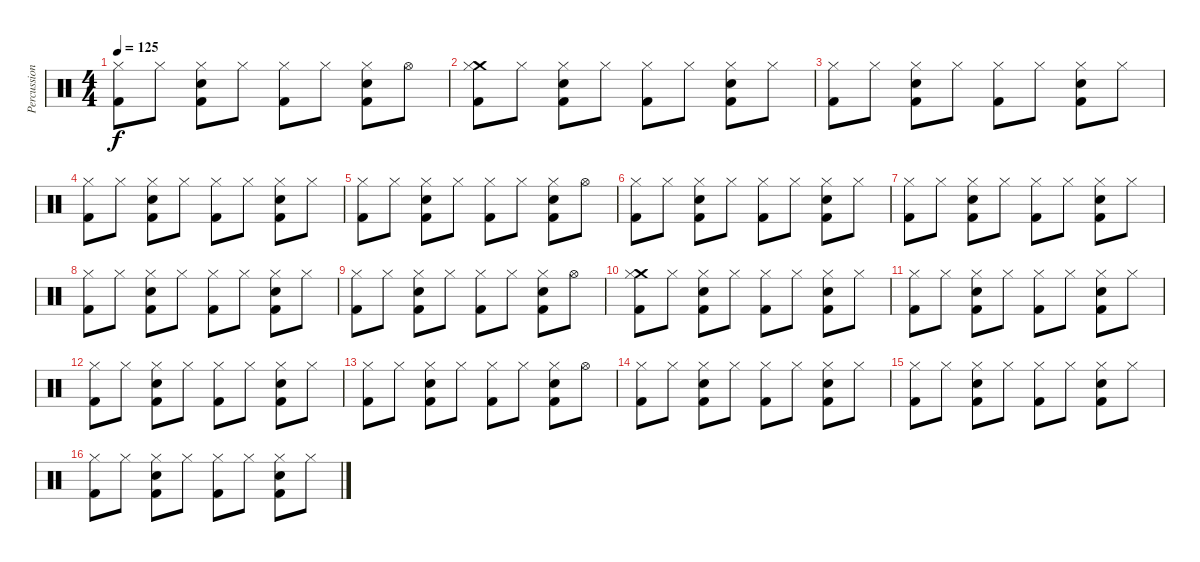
\track ("Percussion" "Percussion") {instrument percussion}
\staff {score}
\articulation defaults
\ts (4 4)
\tempo 125
\clef neutral
\ks c
("Hi-Hat (closed)" "Kick (hit) 2").8{dy f} "Hi-Hat (closed)".8 ("Hi-Hat (closed)" "Electric Snare (hit)" "Kick (hit) 2").8 "Hi-Hat (closed)".8 ("Hi-Hat (closed)" "Kick (hit) 2").8 "Hi-Hat (closed)".8 ("Hi-Hat (closed)" "Electric Snare (hit)" "Kick (hit) 2").8 "Hi-Hat (open)".8 |
("Crash medium (hit)" "Hi-Hat (closed)" "Kick (hit) 2").8 "Hi-Hat (closed)".8 ("Hi-Hat (closed)" "Electric Snare (hit)" "Kick (hit) 2").8 "Hi-Hat (closed)".8 ("Hi-Hat (closed)" "Kick (hit) 2").8 "Hi-Hat (closed)".8 ("Hi-Hat (closed)" "Electric Snare (hit)" "Kick (hit) 2").8 "Hi-Hat (closed)".8 |
("Hi-Hat (closed)" "Kick (hit) 2").8 "Hi-Hat (closed)".8 ("Hi-Hat (closed)" "Electric Snare (hit)" "Kick (hit) 2").8 "Hi-Hat (closed)".8 ("Hi-Hat (closed)" "Kick (hit) 2").8 "Hi-Hat (closed)".8 ("Hi-Hat (closed)" "Electric Snare (hit)" "Kick (hit) 2").8 "Hi-Hat (closed)".8 |
("Hi-Hat (closed)" "Kick (hit) 2").8 "Hi-Hat (closed)".8 ("Hi-Hat (closed)" "Electric Snare (hit)" "Kick (hit) 2").8 "Hi-Hat (closed)".8 ("Hi-Hat (closed)" "Kick (hit) 2").8 "Hi-Hat (closed)".8 ("Hi-Hat (closed)" "Electric Snare (hit)" "Kick (hit) 2").8 "Hi-Hat (closed)".8 |
("Hi-Hat (closed)" "Kick (hit) 2").8 "Hi-Hat (closed)".8 ("Hi-Hat (closed)" "Electric Snare (hit)" "Kick (hit) 2").8 "Hi-Hat (closed)".8 ("Hi-Hat (closed)" "Kick (hit) 2").8 "Hi-Hat (closed)".8 ("Hi-Hat (closed)" "Electric Snare (hit)" "Kick (hit) 2").8 "Hi-Hat (open)".8 |
("Hi-Hat (closed)" "Kick (hit) 2").8 "Hi-Hat (closed)".8 ("Hi-Hat (closed)" "Electric Snare (hit)" "Kick (hit) 2").8 "Hi-Hat (closed)".8 ("Hi-Hat (closed)" "Kick (hit) 2").8 "Hi-Hat (closed)".8 ("Hi-Hat (closed)" "Electric Snare (hit)" "Kick (hit) 2").8 "Hi-Hat (closed)".8 |
("Hi-Hat (closed)" "Kick (hit) 2").8 "Hi-Hat (closed)".8 ("Hi-Hat (closed)" "Electric Snare (hit)" "Kick (hit) 2").8 "Hi-Hat (closed)".8 ("Hi-Hat (closed)" "Kick (hit) 2").8 "Hi-Hat (closed)".8 ("Hi-Hat (closed)" "Electric Snare (hit)" "Kick (hit) 2").8 "Hi-Hat (closed)".8 |
("Hi-Hat (closed)" "Kick (hit) 2").8 "Hi-Hat (closed)".8 ("Hi-Hat (closed)" "Electric Snare (hit)" "Kick (hit) 2").8 "Hi-Hat (closed)".8 ("Hi-Hat (closed)" "Kick (hit) 2").8 "Hi-Hat (closed)".8 ("Hi-Hat (closed)" "Electric Snare (hit)" "Kick (hit) 2").8 "Hi-Hat (closed)".8 |
("Hi-Hat (closed)" "Kick (hit) 2").8 "Hi-Hat (closed)".8 ("Hi-Hat (closed)" "Electric Snare (hit)" "Kick (hit) 2").8 "Hi-Hat (closed)".8 ("Hi-Hat (closed)" "Kick (hit) 2").8 "Hi-Hat (closed)".8 ("Hi-Hat (closed)" "Electric Snare (hit)" "Kick (hit) 2").8 "Hi-Hat (open)".8 |
("Crash medium (hit)" "Hi-Hat (closed)" "Kick (hit) 2").8 "Hi-Hat (closed)".8 ("Hi-Hat (closed)" "Electric Snare (hit)" "Kick (hit) 2").8 "Hi-Hat (closed)".8 ("Hi-Hat (closed)" "Kick (hit) 2").8 "Hi-Hat (closed)".8 ("Hi-Hat (closed)" "Electric Snare (hit)" "Kick (hit) 2").8 "Hi-Hat (closed)".8 |
("Hi-Hat (closed)" "Kick (hit) 2").8 "Hi-Hat (closed)".8 ("Hi-Hat (closed)" "Electric Snare (hit)" "Kick (hit) 2").8 "Hi-Hat (closed)".8 ("Hi-Hat (closed)" "Kick (hit) 2").8 "Hi-Hat (closed)".8 ("Hi-Hat (closed)" "Electric Snare (hit)" "Kick (hit) 2").8 "Hi-Hat (closed)".8 |
("Hi-Hat (closed)" "Kick (hit) 2").8 "Hi-Hat (closed)".8 ("Hi-Hat (closed)" "Electric Snare (hit)" "Kick (hit) 2").8 "Hi-Hat (closed)".8 ("Hi-Hat (closed)" "Kick (hit) 2").8 "Hi-Hat (closed)".8 ("Hi-Hat (closed)" "Electric Snare (hit)" "Kick (hit) 2").8 "Hi-Hat (closed)".8 |
("Hi-Hat (closed)" "Kick (hit) 2").8 "Hi-Hat (closed)".8 ("Hi-Hat (closed)" "Electric Snare (hit)" "Kick (hit) 2").8 "Hi-Hat (closed)".8 ("Hi-Hat (closed)" "Kick (hit) 2").8 "Hi-Hat (closed)".8 ("Hi-Hat (closed)" "Electric Snare (hit)" "Kick (hit) 2").8 "Hi-Hat (open)".8 |
("Hi-Hat (closed)" "Kick (hit) 2").8 "Hi-Hat (closed)".8 ("Hi-Hat (closed)" "Electric Snare (hit)" "Kick (hit) 2").8 "Hi-Hat (closed)".8 ("Hi-Hat (closed)" "Kick (hit) 2").8 "Hi-Hat (closed)".8 ("Hi-Hat (closed)" "Electric Snare (hit)" "Kick (hit) 2").8 "Hi-Hat (closed)".8 |
("Hi-Hat (closed)" "Kick (hit) 2").8 "Hi-Hat (closed)".8 ("Hi-Hat (closed)" "Electric Snare (hit)" "Kick (hit) 2").8 "Hi-Hat (closed)".8 ("Hi-Hat (closed)" "Kick (hit) 2").8 "Hi-Hat (closed)".8 ("Hi-Hat (closed)" "Electric Snare (hit)" "Kick (hit) 2").8 "Hi-Hat (closed)".8 |
("Hi-Hat (closed)" "Kick (hit) 2").8 "Hi-Hat (closed)".8 ("Hi-Hat (closed)" "Electric Snare (hit)" "Kick (hit) 2").8 "Hi-Hat (closed)".8 ("Hi-Hat (closed)" "Kick (hit) 2").8 "Hi-Hat (closed)".8 ("Hi-Hat (closed)" "Electric Snare (hit)" "Kick (hit) 2").8 "Hi-Hat (closed)".8
